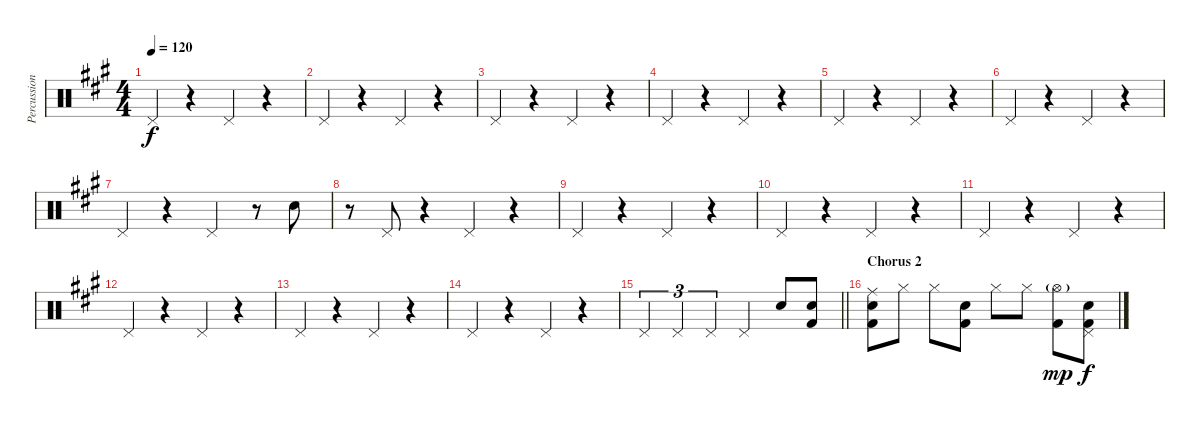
\track ("Percussion" "Percussion") {instrument percussion}
\staff {score}
\articulation defaults
\ts (4 4)
\tempo 120
\clef neutral
\ks a "Pedal Hi-Hat (hit)".4{dy f}
r.4 "Pedal Hi-Hat (hit)".4 r.4 |
"Pedal Hi-Hat (hit)".4 r.4 "Pedal Hi-Hat (hit)".4 r.4 |
"Pedal Hi-Hat (hit)".4 r.4 "Pedal Hi-Hat (hit)".4 r.4 |
"Pedal Hi-Hat (hit)".4 r.4 "Pedal Hi-Hat (hit)".4 r.4 |
"Pedal Hi-Hat (hit)".4 r.4 "Pedal Hi-Hat (hit)".4 r.4 |
"Pedal Hi-Hat (hit)".4 r.4 "Pedal Hi-Hat (hit)".4 r.4 |
"Pedal Hi-Hat (hit)".4 r.4 "Pedal Hi-Hat (hit)".4 r.8 "Electric Snare (hit)".8 |
r.8 "Pedal Hi-Hat (hit)".8 r.4 "Pedal Hi-Hat (hit)".4 r.4 |
"Pedal Hi-Hat (hit)".4 r.4 "Pedal Hi-Hat (hit)".4 r.4 |
"Pedal Hi-Hat (hit)".4 r.4 "Pedal Hi-Hat (hit)".4 r.4 |
"Pedal Hi-Hat (hit)".4 r.4 "Pedal Hi-Hat (hit)".4 r.4 |
"Pedal Hi-Hat (hit)".4 r.4 "Pedal Hi-Hat (hit)".4 r.4 |
"Pedal Hi-Hat (hit)".4 r.4 "Pedal Hi-Hat (hit)".4 r.4 |
"Pedal Hi-Hat (hit)".4 r.4 "Pedal Hi-Hat (hit)".4 r.4 |
\barLineRight lightlight "Pedal Hi-Hat (hit)".4{tu (3 2)} "Pedal Hi-Hat (hit)".4{tu (3 2)} "Pedal Hi-Hat (hit)".4{tu (3 2)} "Pedal Hi-Hat (hit)".4 "Snare (hit) 2".8
("Snare (hit) 2" "Kick (hit) 2").8 |
\section ("" "Chorus 2")
("Ride (middle)" "Snare (hit) 2" "Kick (hit) 2").8 "Hi-Hat (closed)".8 "Hi-Hat (closed)".8 ("Snare (hit) 2" "Kick (hit) 2").8 "Hi-Hat (closed)".8 "Hi-Hat (closed)".8 ("Hi-Hat (open)"{g} "Kick (hit) 2").8{dy mp} ("Pedal Hi-Hat (hit)" "Snare (hit) 2" "Kick (hit) 2").8{dy f}
